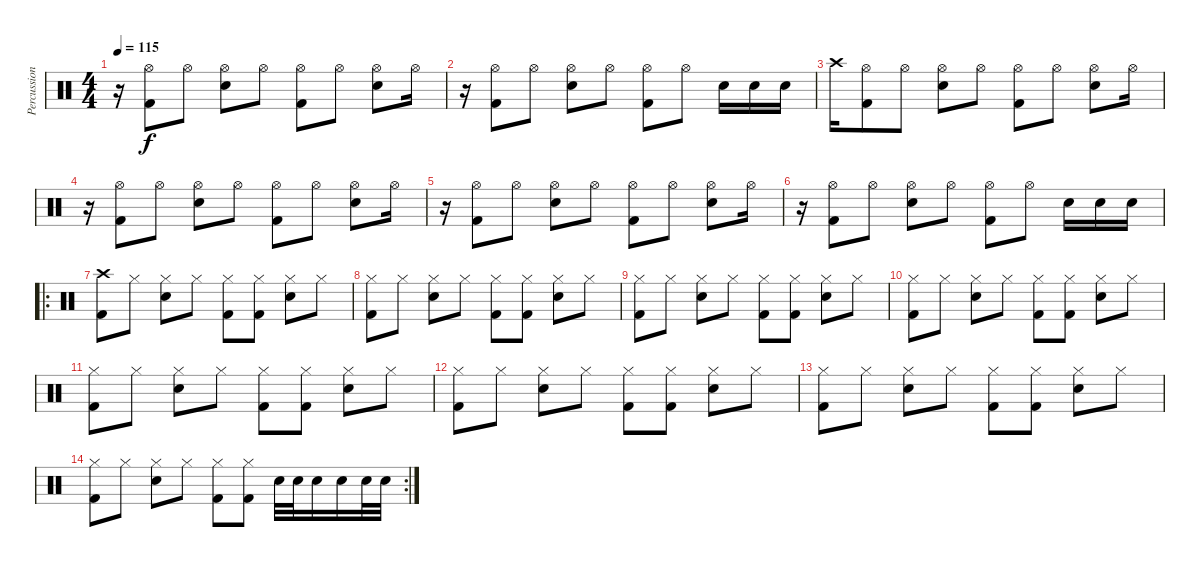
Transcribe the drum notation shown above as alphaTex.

\track ("Percussion" "Percussion") {instrument percussion}
\staff {score}
\articulation defaults
\ts (4 4)
\tempo 115
\clef neutral
\ks c
r.16{dy f} ("Hi-Hat (open)" "Kick (hit) 2").8 "Hi-Hat (open)".8 ("Hi-Hat (open)" "Snare (hit) 2").8 "Hi-Hat (open)".8 ("Hi-Hat (open)" "Kick (hit) 2").8 "Hi-Hat (open)".8 ("Hi-Hat (open)" "Snare (hit) 2").8 "Hi-Hat (open)".16 |
r.16 ("Hi-Hat (open)" "Kick (hit) 2").8 "Hi-Hat (open)".8 ("Hi-Hat (open)" "Snare (hit) 2").8 "Hi-Hat (open)".8 ("Hi-Hat (open)" "Kick (hit) 2").8 "Hi-Hat (open)".8 "Snare (hit) 2".16 "Snare (hit) 2".16 "Snare (hit) 2".16 |
"Crash high (hit)".16 ("Hi-Hat (open)" "Kick (hit) 2").8 "Hi-Hat (open)".8 ("Hi-Hat (open)" "Snare (hit) 2").8 "Hi-Hat (open)".8 ("Hi-Hat (open)" "Kick (hit) 2").8 "Hi-Hat (open)".8 ("Hi-Hat (open)" "Snare (hit) 2").8 "Hi-Hat (open)".16 |
r.16 ("Hi-Hat (open)" "Kick (hit) 2").8 "Hi-Hat (open)".8 ("Hi-Hat (open)" "Snare (hit) 2").8 "Hi-Hat (open)".8 ("Hi-Hat (open)" "Kick (hit) 2").8 "Hi-Hat (open)".8 ("Hi-Hat (open)" "Snare (hit) 2").8 "Hi-Hat (open)".16 |
r.16 ("Hi-Hat (open)" "Kick (hit) 2").8 "Hi-Hat (open)".8 ("Hi-Hat (open)" "Snare (hit) 2").8 "Hi-Hat (open)".8 ("Hi-Hat (open)" "Kick (hit) 2").8 "Hi-Hat (open)".8 ("Hi-Hat (open)" "Snare (hit) 2").8 "Hi-Hat (open)".16 |
r.16 ("Hi-Hat (open)" "Kick (hit) 2").8 "Hi-Hat (open)".8 ("Hi-Hat (open)" "Snare (hit) 2").8 "Hi-Hat (open)".8 ("Hi-Hat (open)" "Kick (hit) 2").8 "Hi-Hat (open)".8 "Snare (hit) 2".16 "Snare (hit) 2".16 "Snare (hit) 2".16 |
\ro
("Crash high (hit)" "Kick (hit) 2").8 "Hi-Hat (closed)".8 ("Hi-Hat (closed)" "Snare (hit) 2").8 "Hi-Hat (closed)".8 ("Hi-Hat (closed)" "Kick (hit) 2").8 ("Hi-Hat (closed)" "Kick (hit) 2").8 ("Hi-Hat (closed)" "Snare (hit) 2").8 "Hi-Hat (closed)".8 |
("Hi-Hat (closed)" "Kick (hit) 2").8 "Hi-Hat (closed)".8 ("Hi-Hat (closed)" "Snare (hit) 2").8 "Hi-Hat (closed)".8 ("Hi-Hat (closed)" "Kick (hit) 2").8 ("Hi-Hat (closed)" "Kick (hit) 2").8 ("Hi-Hat (closed)" "Snare (hit) 2").8 "Hi-Hat (closed)".8 |
("Hi-Hat (closed)" "Kick (hit) 2").8 "Hi-Hat (closed)".8 ("Hi-Hat (closed)" "Snare (hit) 2").8 "Hi-Hat (closed)".8 ("Hi-Hat (closed)" "Kick (hit) 2").8 ("Hi-Hat (closed)" "Kick (hit) 2").8 ("Hi-Hat (closed)" "Snare (hit) 2").8 "Hi-Hat (closed)".8 |
("Hi-Hat (closed)" "Kick (hit) 2").8 "Hi-Hat (closed)".8 ("Hi-Hat (closed)" "Snare (hit) 2").8 "Hi-Hat (closed)".8 ("Hi-Hat (closed)" "Kick (hit) 2").8 ("Hi-Hat (closed)" "Kick (hit) 2").8 ("Hi-Hat (closed)" "Snare (hit) 2").8 "Hi-Hat (closed)".8 |
("Hi-Hat (closed)" "Kick (hit) 2").8 "Hi-Hat (closed)".8 ("Hi-Hat (closed)" "Snare (hit) 2").8 "Hi-Hat (closed)".8 ("Hi-Hat (closed)" "Kick (hit) 2").8 ("Hi-Hat (closed)" "Kick (hit) 2").8 ("Hi-Hat (closed)" "Snare (hit) 2").8 "Hi-Hat (closed)".8 |
("Hi-Hat (closed)" "Kick (hit) 2").8 "Hi-Hat (closed)".8 ("Hi-Hat (closed)" "Snare (hit) 2").8 "Hi-Hat (closed)".8 ("Hi-Hat (closed)" "Kick (hit) 2").8 ("Hi-Hat (closed)" "Kick (hit) 2").8 ("Hi-Hat (closed)" "Snare (hit) 2").8 "Hi-Hat (closed)".8 |
("Hi-Hat (closed)" "Kick (hit) 2").8 "Hi-Hat (closed)".8 ("Hi-Hat (closed)" "Snare (hit) 2").8 "Hi-Hat (closed)".8 ("Hi-Hat (closed)" "Kick (hit) 2").8 ("Hi-Hat (closed)" "Kick (hit) 2").8 ("Hi-Hat (closed)" "Snare (hit) 2").8 "Hi-Hat (closed)".8 |
\rc 2
("Hi-Hat (closed)" "Kick (hit) 2").8 "Hi-Hat (closed)".8 ("Hi-Hat (closed)" "Snare (hit) 2").8 "Hi-Hat (closed)".8 ("Hi-Hat (closed)" "Kick (hit) 2").8 ("Hi-Hat (closed)" "Kick (hit) 2").8 "Snare (hit) 2".32 "Snare (hit) 2".32 "Snare (hit) 2".16 "Snare (hit) 2".16 "Snare (hit) 2".32 "Snare (hit) 2".32
